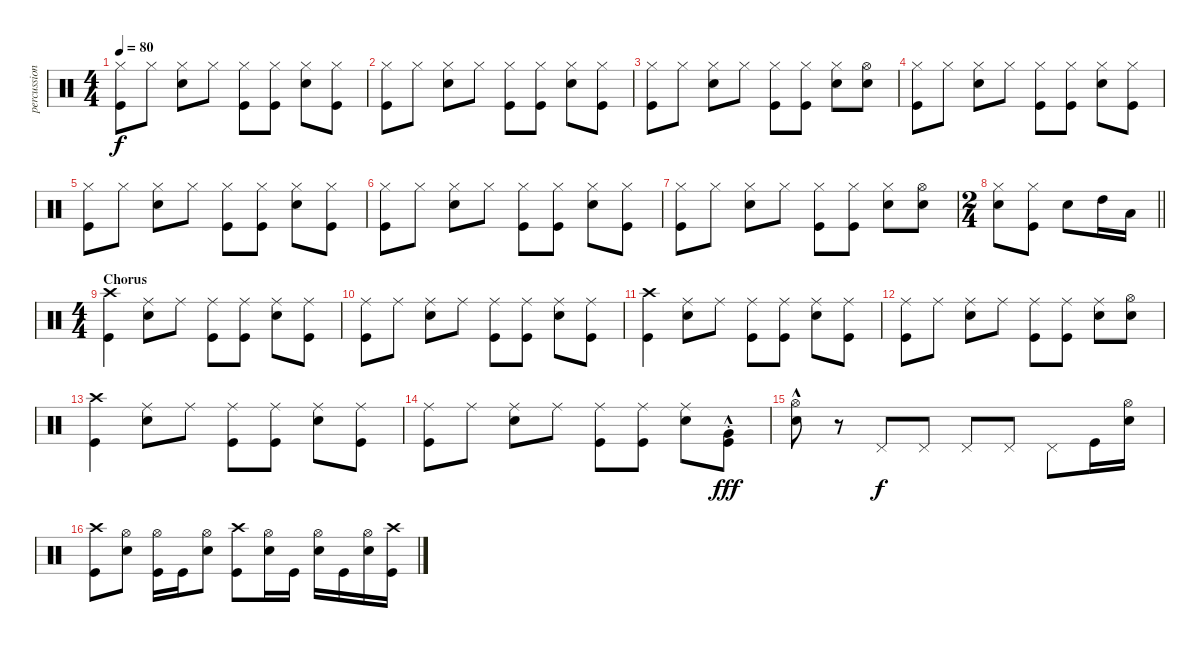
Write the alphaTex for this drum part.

\track ("percussion" "percussion") {instrument percussion}
\staff {score}
\articulation defaults
\ts (4 4)
\tempo 80
\clef neutral
\ks c
("Hi-Hat (closed)" "Kick (hit)").8{dy f} "Hi-Hat (closed)".8 ("Hi-Hat (closed)" "Snare (hit) 2").8 "Hi-Hat (closed)".8 ("Hi-Hat (closed)" "Kick (hit)").8 ("Hi-Hat (closed)" "Kick (hit)").8 ("Hi-Hat (closed)" "Snare (hit) 2").8 ("Hi-Hat (closed)" "Kick (hit)").8 |
("Hi-Hat (closed)" "Kick (hit)").8 "Hi-Hat (closed)".8 ("Hi-Hat (closed)" "Snare (hit) 2").8 "Hi-Hat (closed)".8 ("Hi-Hat (closed)" "Kick (hit)").8 ("Hi-Hat (closed)" "Kick (hit)").8 ("Hi-Hat (closed)" "Snare (hit) 2").8 ("Hi-Hat (closed)" "Kick (hit)").8 |
("Hi-Hat (closed)" "Kick (hit)").8 "Hi-Hat (closed)".8 ("Hi-Hat (closed)" "Snare (hit) 2").8 "Hi-Hat (closed)".8 ("Hi-Hat (closed)" "Kick (hit)").8 ("Hi-Hat (closed)" "Kick (hit)").8 ("Hi-Hat (closed)" "Snare (hit) 2").8 ("Hi-Hat (open)" "Snare (hit) 2").8 |
("Hi-Hat (closed)" "Kick (hit)").8 "Hi-Hat (closed)".8 ("Hi-Hat (closed)" "Snare (hit) 2").8 "Hi-Hat (closed)".8 ("Hi-Hat (closed)" "Kick (hit)").8 ("Hi-Hat (closed)" "Kick (hit)").8 ("Hi-Hat (closed)" "Snare (hit) 2").8 ("Hi-Hat (closed)" "Kick (hit)").8 |
("Hi-Hat (closed)" "Kick (hit)").8 "Hi-Hat (closed)".8 ("Hi-Hat (closed)" "Snare (hit) 2").8 "Hi-Hat (closed)".8 ("Hi-Hat (closed)" "Kick (hit)").8 ("Hi-Hat (closed)" "Kick (hit)").8 ("Hi-Hat (closed)" "Snare (hit) 2").8 ("Hi-Hat (closed)" "Kick (hit)").8 |
("Hi-Hat (closed)" "Kick (hit)").8 "Hi-Hat (closed)".8 ("Hi-Hat (closed)" "Snare (hit) 2").8 "Hi-Hat (closed)".8 ("Hi-Hat (closed)" "Kick (hit)").8 ("Hi-Hat (closed)" "Kick (hit)").8 ("Hi-Hat (closed)" "Snare (hit) 2").8 ("Hi-Hat (closed)" "Kick (hit)").8 |
("Hi-Hat (closed)" "Kick (hit)").8 "Hi-Hat (closed)".8 ("Hi-Hat (closed)" "Snare (hit) 2").8 "Hi-Hat (closed)".8 ("Hi-Hat (closed)" "Kick (hit)").8 ("Hi-Hat (closed)" "Kick (hit)").8 ("Hi-Hat (closed)" "Snare (hit) 2").8 ("Hi-Hat (open)" "Snare (hit) 2").8 |
\ts (2 4)
\barLineRight lightlight
("Hi-Hat (closed)" "Snare (hit) 2").8 ("Hi-Hat (closed)" "Kick (hit)").8 "Snare (hit) 2".8 "High Tom (hit)".16 "Low Tom (hit)".16 |
\ts (4 4)
\section ("" "Chorus")
("Crash high (hit)" "Kick (hit)").4 ("Ride (middle)" "Snare (hit) 2").8 "Ride (middle)".8 ("Ride (middle)" "Kick (hit)").8 ("Ride (middle)" "Kick (hit)").8 ("Ride (middle)" "Snare (hit) 2").8 ("Ride (middle)" "Kick (hit)").8 |
("Ride (middle)" "Kick (hit)").8 "Ride (middle)".8 ("Ride (middle)" "Snare (hit) 2").8 "Ride (middle)".8 ("Ride (middle)" "Kick (hit)").8 ("Ride (middle)" "Kick (hit)").8 ("Ride (middle)" "Snare (hit) 2").8 ("Ride (middle)" "Kick (hit)").8 |
("Crash high (hit)" "Kick (hit)").4 ("Ride (middle)" "Snare (hit) 2").8 "Ride (middle)".8 ("Ride (middle)" "Kick (hit)").8 ("Ride (middle)" "Kick (hit)").8 ("Ride (middle)" "Snare (hit) 2").8 ("Ride (middle)" "Kick (hit)").8 |
("Ride (middle)" "Kick (hit)").8 "Ride (middle)".8 ("Ride (middle)" "Snare (hit) 2").8 "Ride (middle)".8 ("Ride (middle)" "Kick (hit)").8 ("Ride (middle)" "Kick (hit)").8 ("Ride (middle)" "Snare (hit) 2").8 ("Hi-Hat (open)" "Snare (hit) 2").8 |
("Crash high (hit)" "Kick (hit)").4 ("Ride (middle)" "Snare (hit) 2").8 "Ride (middle)".8 ("Ride (middle)" "Kick (hit)").8 ("Ride (middle)" "Kick (hit)").8 ("Ride (middle)" "Snare (hit) 2").8 ("Ride (middle)" "Kick (hit)").8 |
("Ride (middle)" "Kick (hit)").8 "Ride (middle)".8 ("Ride (middle)" "Snare (hit) 2").8 "Ride (middle)".8 ("Ride (middle)" "Kick (hit)").8 ("Ride (middle)" "Kick (hit)").8 ("Ride (middle)" "Snare (hit) 2").8 ("Very Low Tom (hit)" "Kick (hit)"{hac st}).8{dy fff} |
("Hi-Hat (open)" "Snare (hit) 2"{hac}).8 r.8 "Pedal Hi-Hat (hit)".8{dy f} "Pedal Hi-Hat (hit)".8 "Pedal Hi-Hat (hit)".8 "Pedal Hi-Hat (hit)".8 "Pedal Hi-Hat (hit)".8 "Kick (hit)".16 ("Hi-Hat (open)" "Snare (hit) 2").16 |
("Crash high (hit)" "Kick (hit)").8 ("Hi-Hat (open)" "Snare (hit) 2").8 ("Hi-Hat (open)" "Kick (hit)").16 "Kick (hit)".16 ("Hi-Hat (open)" "Snare (hit) 2").8 ("Crash high (hit)" "Kick (hit)").8 ("Hi-Hat (open)" "Snare (hit) 2").16 "Kick (hit)".16 ("Hi-Hat (open)" "Snare (hit) 2").16 "Kick (hit)".16 ("Hi-Hat (open)" "Snare (hit) 2").16 ("Crash high (hit)" "Kick (hit)").16
